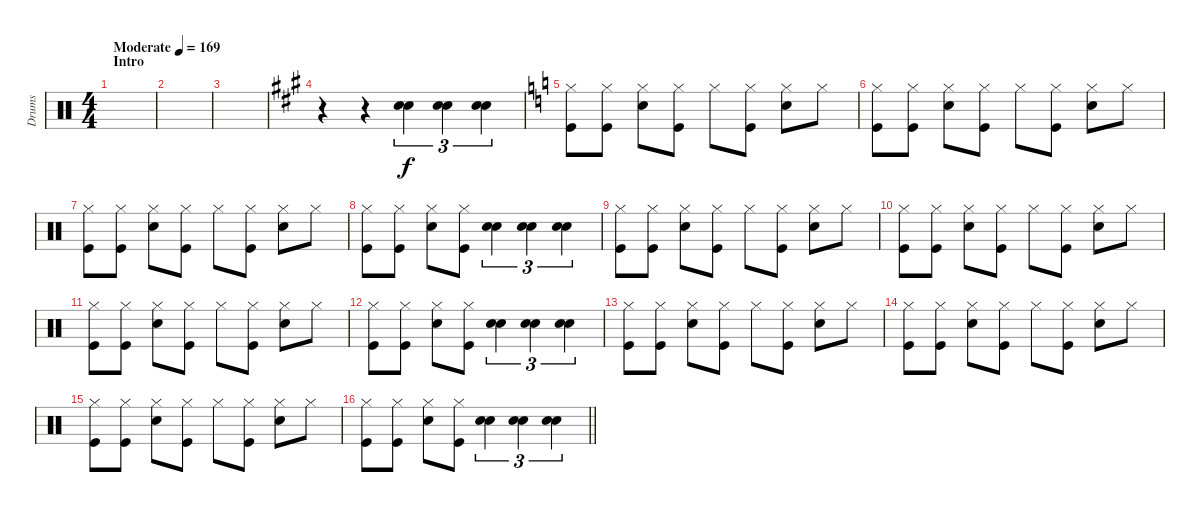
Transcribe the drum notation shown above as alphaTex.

\track ("Drums" "Drums") {instrument percussion}
\staff {score}
\articulation defaults
\ts (4 4)
\section ("" "Intro")
\tempo (169 "Moderate")
\clef neutral
\ks c
|
|
|
\ks a
r.4 r.4 ("Snare (hit) 2" "Snare (hit) 2").4{tu (3 2)} ("Snare (hit) 2" "Snare (hit) 2").4{tu (3 2)} ("Snare (hit) 2" "Snare (hit) 2").4{tu (3 2)} |
\ks c
("Hi-Hat (closed)" "Kick (hit)").8 ("Hi-Hat (closed)" "Kick (hit)").8 ("Hi-Hat (closed)" "Snare (hit) 2").8 ("Hi-Hat (closed)" "Kick (hit)").8 "Hi-Hat (closed)".8 ("Hi-Hat (closed)" "Kick (hit)").8 ("Hi-Hat (closed)" "Snare (hit) 2").8 "Hi-Hat (closed)".8 |
("Hi-Hat (closed)" "Kick (hit)").8 ("Hi-Hat (closed)" "Kick (hit)").8 ("Hi-Hat (closed)" "Snare (hit) 2").8 ("Hi-Hat (closed)" "Kick (hit)").8 "Hi-Hat (closed)".8 ("Hi-Hat (closed)" "Kick (hit)").8 ("Hi-Hat (closed)" "Snare (hit) 2").8 "Hi-Hat (closed)".8 |
("Hi-Hat (closed)" "Kick (hit)").8 ("Hi-Hat (closed)" "Kick (hit)").8 ("Hi-Hat (closed)" "Snare (hit) 2").8 ("Hi-Hat (closed)" "Kick (hit)").8 "Hi-Hat (closed)".8 ("Hi-Hat (closed)" "Kick (hit)").8 ("Hi-Hat (closed)" "Snare (hit) 2").8 "Hi-Hat (closed)".8 |
("Hi-Hat (closed)" "Kick (hit)").8 ("Hi-Hat (closed)" "Kick (hit)").8 ("Hi-Hat (closed)" "Snare (hit) 2").8 ("Hi-Hat (closed)" "Kick (hit)").8 ("Snare (hit) 2" "Snare (hit) 2").4{tu (3 2)} ("Snare (hit) 2" "Snare (hit) 2").4{tu (3 2)} ("Snare (hit) 2" "Snare (hit) 2").4{tu (3 2)} |
("Hi-Hat (closed)" "Kick (hit)").8 ("Hi-Hat (closed)" "Kick (hit)").8 ("Hi-Hat (closed)" "Snare (hit) 2").8 ("Hi-Hat (closed)" "Kick (hit)").8 "Hi-Hat (closed)".8 ("Hi-Hat (closed)" "Kick (hit)").8 ("Hi-Hat (closed)" "Snare (hit) 2").8 "Hi-Hat (closed)".8 |
("Hi-Hat (closed)" "Kick (hit)").8 ("Hi-Hat (closed)" "Kick (hit)").8 ("Hi-Hat (closed)" "Snare (hit) 2").8 ("Hi-Hat (closed)" "Kick (hit)").8 "Hi-Hat (closed)".8 ("Hi-Hat (closed)" "Kick (hit)").8 ("Hi-Hat (closed)" "Snare (hit) 2").8 "Hi-Hat (closed)".8 |
("Hi-Hat (closed)" "Kick (hit)").8 ("Hi-Hat (closed)" "Kick (hit)").8 ("Hi-Hat (closed)" "Snare (hit) 2").8 ("Hi-Hat (closed)" "Kick (hit)").8 "Hi-Hat (closed)".8 ("Hi-Hat (closed)" "Kick (hit)").8 ("Hi-Hat (closed)" "Snare (hit) 2").8 "Hi-Hat (closed)".8 |
("Hi-Hat (closed)" "Kick (hit)").8 ("Hi-Hat (closed)" "Kick (hit)").8 ("Hi-Hat (closed)" "Snare (hit) 2").8 ("Hi-Hat (closed)" "Kick (hit)").8 ("Snare (hit) 2" "Snare (hit) 2").4{tu (3 2)} ("Snare (hit) 2" "Snare (hit) 2").4{tu (3 2)} ("Snare (hit) 2" "Snare (hit) 2").4{tu (3 2)} |
("Hi-Hat (closed)" "Kick (hit)").8 ("Hi-Hat (closed)" "Kick (hit)").8 ("Hi-Hat (closed)" "Snare (hit) 2").8 ("Hi-Hat (closed)" "Kick (hit)").8 "Hi-Hat (closed)".8 ("Hi-Hat (closed)" "Kick (hit)").8 ("Hi-Hat (closed)" "Snare (hit) 2").8 "Hi-Hat (closed)".8 |
("Hi-Hat (closed)" "Kick (hit)").8 ("Hi-Hat (closed)" "Kick (hit)").8 ("Hi-Hat (closed)" "Snare (hit) 2").8 ("Hi-Hat (closed)" "Kick (hit)").8 "Hi-Hat (closed)".8 ("Hi-Hat (closed)" "Kick (hit)").8 ("Hi-Hat (closed)" "Snare (hit) 2").8 "Hi-Hat (closed)".8 |
("Hi-Hat (closed)" "Kick (hit)").8 ("Hi-Hat (closed)" "Kick (hit)").8 ("Hi-Hat (closed)" "Snare (hit) 2").8 ("Hi-Hat (closed)" "Kick (hit)").8 "Hi-Hat (closed)".8 ("Hi-Hat (closed)" "Kick (hit)").8 ("Hi-Hat (closed)" "Snare (hit) 2").8 "Hi-Hat (closed)".8 |
\barLineRight lightlight
("Hi-Hat (closed)" "Kick (hit)").8 ("Hi-Hat (closed)" "Kick (hit)").8 ("Hi-Hat (closed)" "Snare (hit) 2").8 ("Hi-Hat (closed)" "Kick (hit)").8 ("Snare (hit) 2" "Snare (hit) 2").4{tu (3 2)} ("Snare (hit) 2" "Snare (hit) 2").4{tu (3 2)} ("Snare (hit) 2" "Snare (hit) 2").4{tu (3 2)}
